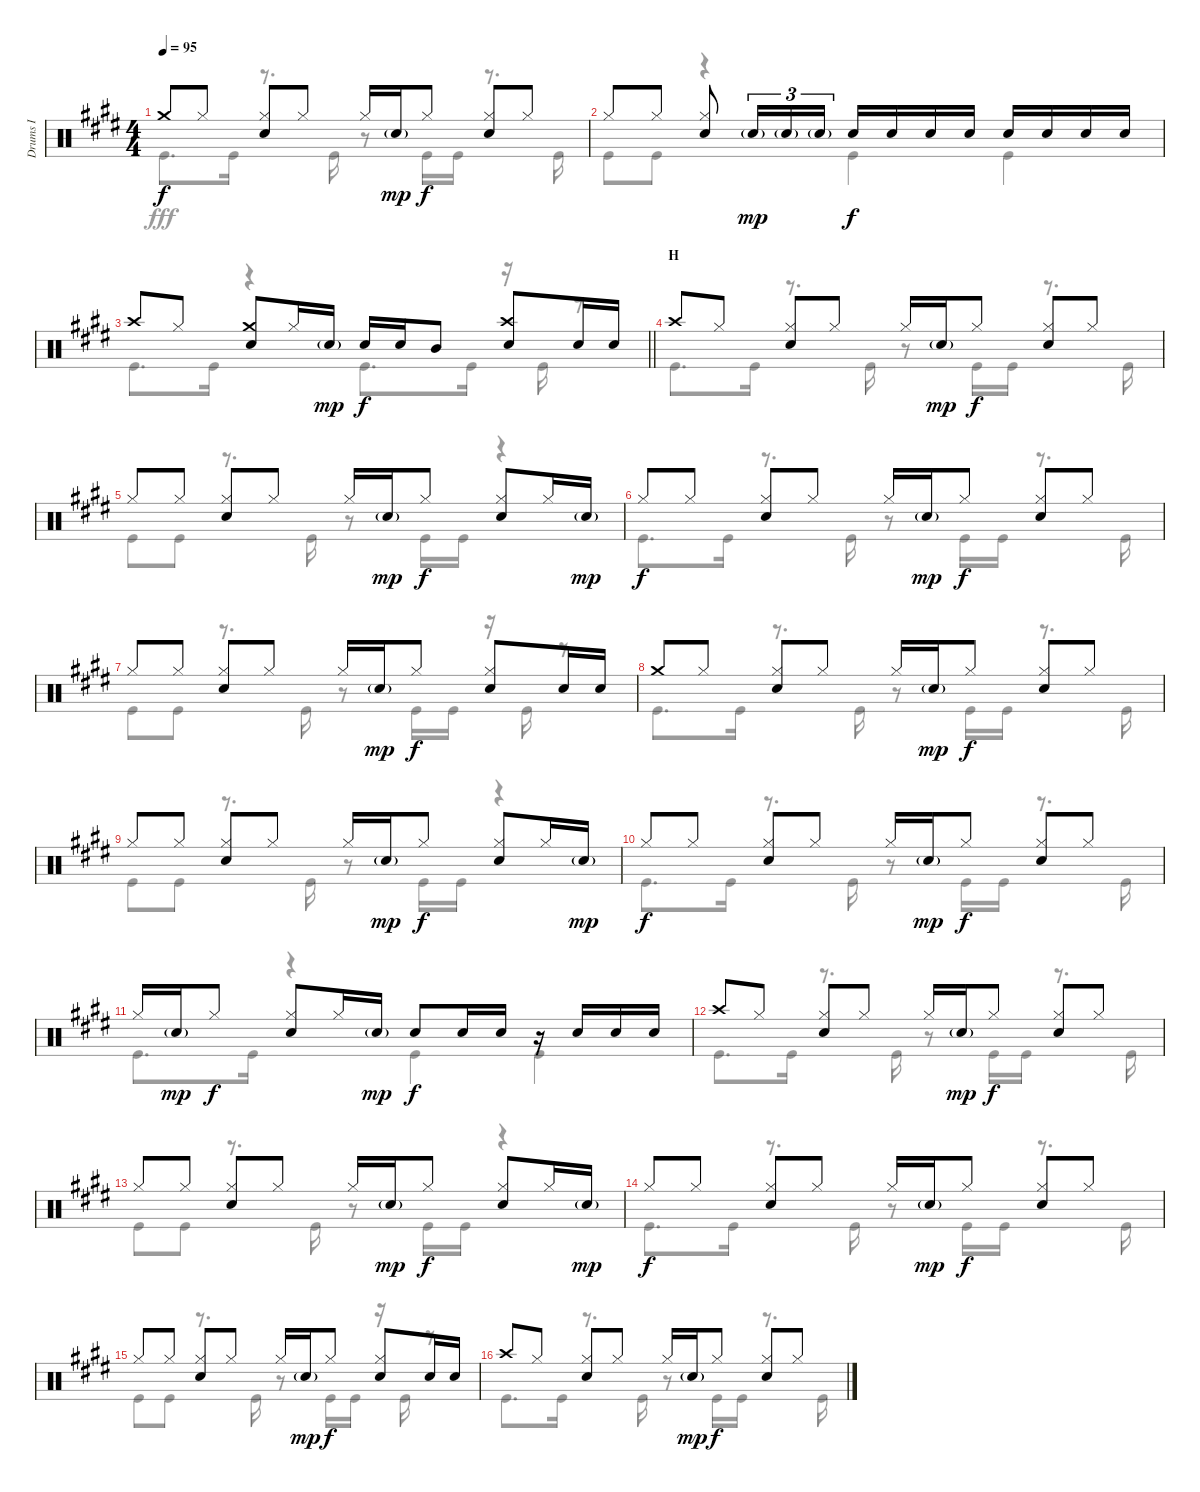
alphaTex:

\track ("Drums I" "Drums I") {instrument percussion}
\staff {score}
\articulation defaults
\voice
\ts (4 4)
\tempo 95
\clef neutral
\ks e "Crash medium (hit)".8{dy f} "Hi-Hat (closed)".8
("Hi-Hat (closed)" "Snare (hit) 2").8 "Hi-Hat (closed)".8 "Hi-Hat (closed)".16 "Snare (hit) 2"{g}.16{dy mp} "Hi-Hat (closed)".8{dy f} ("Hi-Hat (closed)" "Snare (hit) 2").8 "Hi-Hat (closed)".8 |
"Hi-Hat (closed)".8 "Hi-Hat (closed)".8 ("Hi-Hat (closed)" "Snare (hit) 2").8 "Snare (hit) 2"{g}.16{tu (3 2) dy mp} "Snare (hit) 2"{g}.16{tu (3 2)} "Snare (hit) 2"{g}.16{tu (3 2)} "Snare (hit) 2".16{dy f} "Snare (hit) 2".16 "Snare (hit) 2".16 "Snare (hit) 2".16 "Snare (hit) 2".16 "Snare (hit) 2".16 "Snare (hit) 2".16 "Snare (hit) 2".16 |
\barLineRight lightlight "Crash high (hit)".8 "Hi-Hat (closed)".8
("Crash medium (hit)" "Snare (hit) 2").8 "Hi-Hat (closed)".16 "Snare (hit) 2"{g}.16{dy mp} "Snare (hit) 2".16{dy f} "Snare (hit) 2".16 "Mid Tom (hit)".8 ("Crash high (hit)" "Snare (hit) 2").8 "Snare (hit) 2".16 "Snare (hit) 2".16 |
\section ("" "H")
"Crash high (hit)".8 "Hi-Hat (closed)".8 ("Hi-Hat (closed)" "Snare (hit) 2").8 "Hi-Hat (closed)".8 "Hi-Hat (closed)".16 "Snare (hit) 2"{g}.16{dy mp} "Hi-Hat (closed)".8{dy f} ("Hi-Hat (closed)" "Snare (hit) 2").8 "Hi-Hat (closed)".8 |
"Hi-Hat (closed)".8 "Hi-Hat (closed)".8 ("Hi-Hat (closed)" "Snare (hit) 2").8 "Hi-Hat (closed)".8 "Hi-Hat (closed)".16 "Snare (hit) 2"{g}.16{dy mp} "Hi-Hat (closed)".8{dy f} ("Hi-Hat (closed)" "Snare (hit) 2").8 "Hi-Hat (closed)".16 "Snare (hit) 2"{g}.16{dy mp} |
"Hi-Hat (closed)".8{dy f} "Hi-Hat (closed)".8 ("Hi-Hat (closed)" "Snare (hit) 2").8 "Hi-Hat (closed)".8 "Hi-Hat (closed)".16 "Snare (hit) 2"{g}.16{dy mp} "Hi-Hat (closed)".8{dy f} ("Hi-Hat (closed)" "Snare (hit) 2").8 "Hi-Hat (closed)".8 |
"Hi-Hat (closed)".8 "Hi-Hat (closed)".8 ("Hi-Hat (closed)" "Snare (hit) 2").8 "Hi-Hat (closed)".8 "Hi-Hat (closed)".16 "Snare (hit) 2"{g}.16{dy mp} "Hi-Hat (closed)".8{dy f} ("Hi-Hat (closed)" "Snare (hit) 2").8 "Snare (hit) 2".16 "Snare (hit) 2".16 |
"Crash medium (hit)".8 "Hi-Hat (closed)".8 ("Hi-Hat (closed)" "Snare (hit) 2").8 "Hi-Hat (closed)".8 "Hi-Hat (closed)".16 "Snare (hit) 2"{g}.16{dy mp} "Hi-Hat (closed)".8{dy f} ("Hi-Hat (closed)" "Snare (hit) 2").8 "Hi-Hat (closed)".8 |
"Hi-Hat (closed)".8 "Hi-Hat (closed)".8 ("Hi-Hat (closed)" "Snare (hit) 2").8 "Hi-Hat (closed)".8 "Hi-Hat (closed)".16 "Snare (hit) 2"{g}.16{dy mp} "Hi-Hat (closed)".8{dy f} ("Hi-Hat (closed)" "Snare (hit) 2").8 "Hi-Hat (closed)".16 "Snare (hit) 2"{g}.16{dy mp} |
"Hi-Hat (closed)".8{dy f} "Hi-Hat (closed)".8 ("Hi-Hat (closed)" "Snare (hit) 2").8 "Hi-Hat (closed)".8 "Hi-Hat (closed)".16 "Snare (hit) 2"{g}.16{dy mp} "Hi-Hat (closed)".8{dy f} ("Hi-Hat (closed)" "Snare (hit) 2").8 "Hi-Hat (closed)".8 |
"Hi-Hat (closed)".16 "Snare (hit) 2"{g}.16{dy mp} "Hi-Hat (closed)".8{dy f} ("Hi-Hat (closed)" "Snare (hit) 2").8 "Hi-Hat (closed)".16 "Snare (hit) 2"{g}.16{dy mp} "Snare (hit) 2".8{dy f} "Snare (hit) 2".16 "Snare (hit) 2".16 r.16 "Snare (hit) 2".16 "Snare (hit) 2".16 "Snare (hit) 2".16 |
"Crash high (hit)".8 "Hi-Hat (closed)".8 ("Hi-Hat (closed)" "Snare (hit) 2").8 "Hi-Hat (closed)".8 "Hi-Hat (closed)".16 "Snare (hit) 2"{g}.16{dy mp} "Hi-Hat (closed)".8{dy f} ("Hi-Hat (closed)" "Snare (hit) 2").8 "Hi-Hat (closed)".8 |
"Hi-Hat (closed)".8 "Hi-Hat (closed)".8 ("Hi-Hat (closed)" "Snare (hit) 2").8 "Hi-Hat (closed)".8 "Hi-Hat (closed)".16 "Snare (hit) 2"{g}.16{dy mp} "Hi-Hat (closed)".8{dy f} ("Hi-Hat (closed)" "Snare (hit) 2").8 "Hi-Hat (closed)".16 "Snare (hit) 2"{g}.16{dy mp} |
"Hi-Hat (closed)".8{dy f} "Hi-Hat (closed)".8 ("Hi-Hat (closed)" "Snare (hit) 2").8 "Hi-Hat (closed)".8 "Hi-Hat (closed)".16 "Snare (hit) 2"{g}.16{dy mp} "Hi-Hat (closed)".8{dy f} ("Hi-Hat (closed)" "Snare (hit) 2").8 "Hi-Hat (closed)".8 |
"Hi-Hat (closed)".8 "Hi-Hat (closed)".8 ("Hi-Hat (closed)" "Snare (hit) 2").8 "Hi-Hat (closed)".8 "Hi-Hat (closed)".16 "Snare (hit) 2"{g}.16{dy mp} "Hi-Hat (closed)".8{dy f} ("Hi-Hat (closed)" "Snare (hit) 2").8 "Snare (hit) 2".16 "Snare (hit) 2".16 |
"Crash high (hit)".8 "Hi-Hat (closed)".8 ("Hi-Hat (closed)" "Snare (hit) 2").8 "Hi-Hat (closed)".8 "Hi-Hat (closed)".16 "Snare (hit) 2"{g}.16{dy mp} "Hi-Hat (closed)".8{dy f} ("Hi-Hat (closed)" "Snare (hit) 2").8 "Hi-Hat (closed)".8
\voice
\clef neutral
\ottava regular
\simile none
\ks e "Kick (hit)".8{d dy fff} "Kick (hit)".16
r.8{d} "Kick (hit)".16 r.8 "Kick (hit)".16 "Kick (hit)".16 r.8{d} "Kick (hit)".16 |
"Kick (hit)".8 "Kick (hit)".8 r.4 "Kick (hit)".4 "Kick (hit)".4 |
\barLineRight lightlight "Kick (hit)".8{d} "Kick (hit)".16
r.4 "Kick (hit)".8{d} "Kick (hit)".16 r.16 "Kick (hit)".16 r.8 |
"Kick (hit)".8{d} "Kick (hit)".16 r.8{d} "Kick (hit)".16 r.8 "Kick (hit)".16 "Kick (hit)".16 r.8{d} "Kick (hit)".16 |
"Kick (hit)".8 "Kick (hit)".8 r.8{d} "Kick (hit)".16 r.8 "Kick (hit)".16 "Kick (hit)".16 r.4 |
"Kick (hit)".8{d} "Kick (hit)".16 r.8{d} "Kick (hit)".16 r.8 "Kick (hit)".16 "Kick (hit)".16 r.8{d} "Kick (hit)".16 |
"Kick (hit)".8 "Kick (hit)".8 r.8{d} "Kick (hit)".16 r.8 "Kick (hit)".16 "Kick (hit)".16 r.16 "Kick (hit)".16 r.8 |
"Kick (hit)".8{d} "Kick (hit)".16 r.8{d} "Kick (hit)".16 r.8 "Kick (hit)".16 "Kick (hit)".16 r.8{d} "Kick (hit)".16 |
"Kick (hit)".8 "Kick (hit)".8 r.8{d} "Kick (hit)".16 r.8 "Kick (hit)".16 "Kick (hit)".16 r.4 |
"Kick (hit)".8{d} "Kick (hit)".16 r.8{d} "Kick (hit)".16 r.8 "Kick (hit)".16 "Kick (hit)".16 r.8{d} "Kick (hit)".16 |
"Kick (hit)".8{d} "Kick (hit)".16 r.4 "Kick (hit)".4 "Kick (hit)".4 |
"Kick (hit)".8{d} "Kick (hit)".16 r.8{d} "Kick (hit)".16 r.8 "Kick (hit)".16 "Kick (hit)".16 r.8{d} "Kick (hit)".16 |
"Kick (hit)".8 "Kick (hit)".8 r.8{d} "Kick (hit)".16 r.8 "Kick (hit)".16 "Kick (hit)".16 r.4 |
"Kick (hit)".8{d} "Kick (hit)".16 r.8{d} "Kick (hit)".16 r.8 "Kick (hit)".16 "Kick (hit)".16 r.8{d} "Kick (hit)".16 |
"Kick (hit)".8 "Kick (hit)".8 r.8{d} "Kick (hit)".16 r.8 "Kick (hit)".16 "Kick (hit)".16 r.16 "Kick (hit)".16 r.8 |
"Kick (hit)".8{d} "Kick (hit)".16 r.8{d} "Kick (hit)".16 r.8 "Kick (hit)".16 "Kick (hit)".16 r.8{d} "Kick (hit)".16
